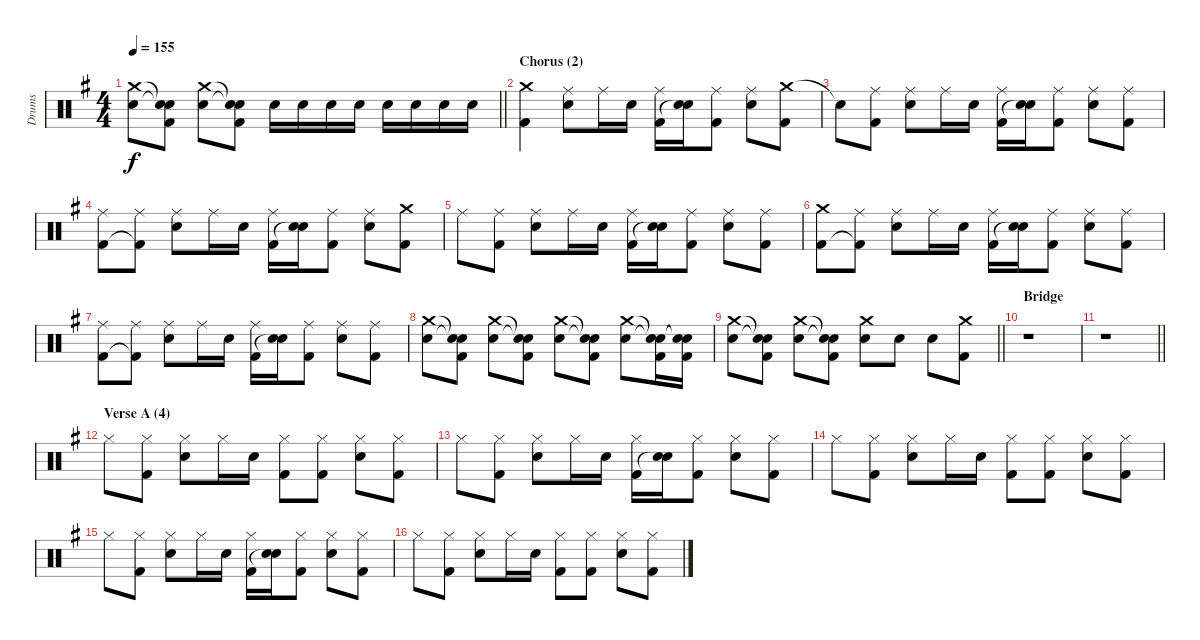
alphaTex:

\track ("Drums" "Drums") {instrument percussion}
\staff {score}
\articulation defaults
\ts (4 4)
\tempo 155
\clef neutral
\barLineRight lightlight
\ks eminor
("Crash medium (hit)" "Electric Snare (hit)").8{dy f} ("Snare (hit)"{t} "Snare (hit)"{t} "Kick (hit) 2").8 ("Crash medium (hit)" "Electric Snare (hit)").8 ("Snare (hit)"{t} "Snare (hit)"{t} "Kick (hit) 2").8 "Electric Snare (hit)".16 "Electric Snare (hit)".16 "Electric Snare (hit)".16 "Electric Snare (hit)".16 "Electric Snare (hit)".16 "Electric Snare (hit)".16 "Electric Snare (hit)".16 "Electric Snare (hit)".16 |
\section ("" "Chorus (2)")
("Crash medium (hit)" "Kick (hit) 2").4 ("Ride (middle)" "Electric Snare (hit)").8 "Ride (middle)".16 "Electric Snare (hit)".16 ("Ride (middle)" "Kick (hit) 2").16 ("Electric Snare (hit)" "Snare (hit)"{t}).16 ("Ride (middle)" "Kick (hit) 2").8 ("Ride (middle)" "Electric Snare (hit)").8 ("Crash medium (hit)" "Kick (hit) 2").8 |
"Snare (hit)"{t}.8 ("Ride (middle)" "Kick (hit) 2").8 ("Ride (middle)" "Electric Snare (hit)").8 "Ride (middle)".16 "Electric Snare (hit)".16 ("Ride (middle)" "Kick (hit) 2").16 ("Electric Snare (hit)" "Snare (hit)"{t}).16 ("Ride (middle)" "Kick (hit) 2").8 ("Ride (middle)" "Electric Snare (hit)").8 ("Ride (middle)" "Kick (hit) 2").8 |
("Ride (middle)" "Kick (hit) 2").8 ("Ride (middle)" "Kick (hit) 2"{t}).8 ("Ride (middle)" "Electric Snare (hit)").8 "Ride (middle)".16 "Electric Snare (hit)".16 ("Ride (middle)" "Kick (hit) 2").16 ("Electric Snare (hit)" "Snare (hit)"{t}).16 ("Ride (middle)" "Kick (hit) 2").8 ("Ride (middle)" "Electric Snare (hit)").8 ("Crash medium (hit)" "Kick (hit) 2").8 |
"Ride (middle)".8 ("Ride (middle)" "Kick (hit) 2").8 ("Ride (middle)" "Electric Snare (hit)").8 "Ride (middle)".16 "Electric Snare (hit)".16 ("Ride (middle)" "Kick (hit) 2").16 ("Electric Snare (hit)" "Snare (hit)"{t}).16 ("Ride (middle)" "Kick (hit) 2").8 ("Ride (middle)" "Electric Snare (hit)").8 ("Ride (middle)" "Kick (hit) 2").8 |
("Crash medium (hit)" "Kick (hit) 2").8 ("Ride (middle)" "Kick (hit) 2"{t}).8 ("Ride (middle)" "Electric Snare (hit)").8 "Ride (middle)".16 "Electric Snare (hit)".16 ("Ride (middle)" "Kick (hit) 2").16 ("Electric Snare (hit)" "Snare (hit)"{t}).16 ("Ride (middle)" "Kick (hit) 2").8 ("Ride (middle)" "Electric Snare (hit)").8 ("Ride (middle)" "Kick (hit) 2").8 |
("Ride (middle)" "Kick (hit) 2").8 ("Ride (middle)" "Kick (hit) 2"{t}).8 ("Ride (middle)" "Electric Snare (hit)").8 "Ride (middle)".16 "Electric Snare (hit)".16 ("Ride (middle)" "Kick (hit) 2").16 ("Electric Snare (hit)" "Snare (hit)"{t}).16 ("Ride (middle)" "Kick (hit) 2").8 ("Ride (middle)" "Electric Snare (hit)").8 ("Ride (middle)" "Kick (hit) 2").8 |
("Crash medium (hit)" "Electric Snare (hit)").8 ("Snare (hit)"{t} "Snare (hit)"{t} "Kick (hit) 2").8 ("Crash medium (hit)" "Electric Snare (hit)").8 ("Snare (hit)"{t} "Snare (hit)"{t} "Kick (hit) 2").8 ("Crash medium (hit)" "Electric Snare (hit)").8 ("Snare (hit)"{t} "Snare (hit)"{t} "Kick (hit) 2").8 ("Crash medium (hit)" "Electric Snare (hit)").8 ("Snare (hit)"{t} "Snare (hit)"{t} "Kick (hit) 2").16 ("Snare (hit)"{t} "Snare (hit)"{t} "Kick (hit) 2").16 |
\barLineRight lightlight
("Crash medium (hit)" "Electric Snare (hit)").8 ("Snare (hit)"{t} "Snare (hit)"{t} "Kick (hit) 2").8 ("Crash medium (hit)" "Electric Snare (hit)").8 ("Snare (hit)"{t} "Snare (hit)"{t} "Kick (hit) 2").8 ("Crash medium (hit)" "Electric Snare (hit)").8 "Electric Snare (hit)".8 "Electric Snare (hit)".8 ("Crash medium (hit)" "Kick (hit) 2").8 |
\section ("" "Bridge")
r.1 |
\barLineRight lightlight
r.1 |
\section ("" "Verse A (4)")
"Hi-Hat (closed)".8 ("Hi-Hat (closed)" "Kick (hit) 2").8 ("Hi-Hat (closed)" "Electric Snare (hit)").8 "Hi-Hat (closed)".16 "Electric Snare (hit)".16 ("Hi-Hat (closed)" "Kick (hit) 2").8 ("Hi-Hat (closed)" "Kick (hit) 2").8 ("Hi-Hat (closed)" "Electric Snare (hit)").8 ("Hi-Hat (closed)" "Kick (hit) 2").8 |
"Hi-Hat (closed)".8 ("Hi-Hat (closed)" "Kick (hit) 2").8 ("Hi-Hat (closed)" "Electric Snare (hit)").8 "Hi-Hat (closed)".16 "Electric Snare (hit)".16 ("Hi-Hat (closed)" "Kick (hit) 2").16 ("Electric Snare (hit)" "Snare (hit)"{t}).16 ("Hi-Hat (closed)" "Kick (hit) 2").8 ("Hi-Hat (closed)" "Electric Snare (hit)").8 ("Hi-Hat (closed)" "Kick (hit) 2").8 |
"Hi-Hat (closed)".8 ("Hi-Hat (closed)" "Kick (hit) 2").8 ("Hi-Hat (closed)" "Electric Snare (hit)").8 "Hi-Hat (closed)".16 "Electric Snare (hit)".16 ("Hi-Hat (closed)" "Kick (hit) 2").8 ("Hi-Hat (closed)" "Kick (hit) 2").8 ("Hi-Hat (closed)" "Electric Snare (hit)").8 ("Hi-Hat (closed)" "Kick (hit) 2").8 |
"Hi-Hat (closed)".8 ("Hi-Hat (closed)" "Kick (hit) 2").8 ("Hi-Hat (closed)" "Electric Snare (hit)").8 "Hi-Hat (closed)".16 "Electric Snare (hit)".16 ("Hi-Hat (closed)" "Kick (hit) 2").16 ("Electric Snare (hit)" "Snare (hit)"{t}).16 ("Hi-Hat (closed)" "Kick (hit) 2").8 ("Hi-Hat (closed)" "Electric Snare (hit)").8 ("Hi-Hat (closed)" "Kick (hit) 2").8 |
"Hi-Hat (closed)".8 ("Hi-Hat (closed)" "Kick (hit) 2").8 ("Hi-Hat (closed)" "Electric Snare (hit)").8 "Hi-Hat (closed)".16 "Electric Snare (hit)".16 ("Hi-Hat (closed)" "Kick (hit) 2").8 ("Hi-Hat (closed)" "Kick (hit) 2").8 ("Hi-Hat (closed)" "Electric Snare (hit)").8 ("Hi-Hat (closed)" "Kick (hit) 2").8
